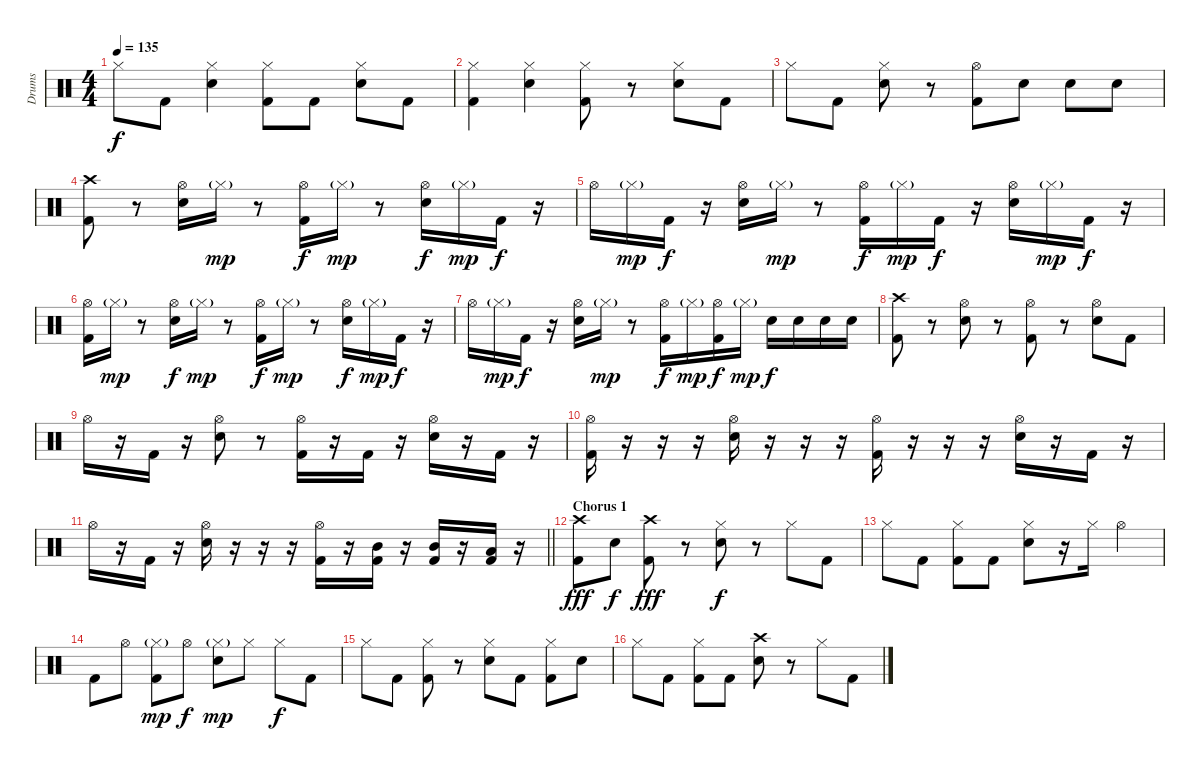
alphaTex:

\track ("Drums" "Drums") {instrument percussion}
\staff {score}
\articulation defaults
\ts (4 4)
\tempo 135
\clef neutral
\ks c "Hi-Hat (closed)".8{dy f} "Kick (hit) 2".8
("Hi-Hat (closed)" "Electric Snare (hit)").4 ("Hi-Hat (closed)" "Kick (hit) 2").8 "Kick (hit) 2".8 ("Hi-Hat (closed)" "Electric Snare (hit)").8 "Kick (hit) 2".8 |
("Hi-Hat (closed)" "Kick (hit) 2").4 ("Hi-Hat (closed)" "Electric Snare (hit)").4 ("Hi-Hat (closed)" "Kick (hit) 2").8 r.8 ("Hi-Hat (closed)" "Electric Snare (hit)").8 "Kick (hit) 2".8 |
"Hi-Hat (closed)".8 "Kick (hit) 2".8 ("Hi-Hat (closed)" "Electric Snare (hit)").8 r.8 ("Hi-Hat (open)" "Kick (hit) 2").8 "Electric Snare (hit)".8 "Electric Snare (hit)".8 "Electric Snare (hit)".8 |
("Crash high (hit)" "Kick (hit) 2").8 r.8 ("Hi-Hat (open)" "Electric Snare (hit)").16 "Hi-Hat (closed)"{g}.16{dy mp} r.8 ("Hi-Hat (open)" "Kick (hit) 2").16{dy f} "Hi-Hat (closed)"{g}.16{dy mp} r.8 ("Hi-Hat (open)" "Electric Snare (hit)").16{dy f} "Hi-Hat (closed)"{g}.16{dy mp} "Kick (hit) 2".16{dy f} r.16 |
"Hi-Hat (open)".16 "Hi-Hat (closed)"{g}.16{dy mp} "Kick (hit) 2".16{dy f} r.16 ("Hi-Hat (open)" "Electric Snare (hit)").16 "Hi-Hat (closed)"{g}.16{dy mp} r.8 ("Hi-Hat (open)" "Kick (hit) 2").16{dy f} "Hi-Hat (closed)"{g}.16{dy mp} "Kick (hit) 2".16{dy f} r.16 ("Hi-Hat (open)" "Electric Snare (hit)").16 "Hi-Hat (closed)"{g}.16{dy mp} "Kick (hit) 2".16{dy f} r.16 |
("Hi-Hat (open)" "Kick (hit) 2").16 "Hi-Hat (closed)"{g}.16{dy mp} r.8 ("Hi-Hat (open)" "Electric Snare (hit)").16{dy f} "Hi-Hat (closed)"{g}.16{dy mp} r.8 ("Hi-Hat (open)" "Kick (hit) 2").16{dy f} "Hi-Hat (closed)"{g}.16{dy mp} r.8 ("Hi-Hat (open)" "Electric Snare (hit)").16{dy f} "Hi-Hat (closed)"{g}.16{dy mp} "Kick (hit) 2".16{dy f} r.16 |
"Hi-Hat (open)".16 "Hi-Hat (closed)"{g}.16{dy mp} "Kick (hit) 2".16{dy f} r.16 ("Hi-Hat (open)" "Electric Snare (hit)").16 "Hi-Hat (closed)"{g}.16{dy mp} r.8 ("Hi-Hat (open)" "Kick (hit) 2").16{dy f} "Hi-Hat (closed)"{g}.16{dy mp} ("Hi-Hat (open)" "Kick (hit) 2").16{dy f} "Hi-Hat (closed)"{g}.16{dy mp} "Electric Snare (hit)".16{dy f} "Electric Snare (hit)".16 "Electric Snare (hit)".16 "Electric Snare (hit)".16 |
("Crash high (hit)" "Kick (hit) 2").8 r.8 ("Hi-Hat (open)" "Electric Snare (hit)").8 r.8 ("Hi-Hat (open)" "Kick (hit) 2").8 r.8 ("Hi-Hat (open)" "Electric Snare (hit)").8 "Kick (hit) 2".8 |
"Hi-Hat (open)".16 r.16 "Kick (hit) 2".16 r.16 ("Hi-Hat (open)" "Electric Snare (hit)").8 r.8 ("Hi-Hat (open)" "Kick (hit) 2").16 r.16 "Kick (hit) 2".16 r.16 ("Hi-Hat (open)" "Electric Snare (hit)").16 r.16 "Kick (hit) 2".16 r.16 |
("Hi-Hat (open)" "Kick (hit) 2").16 r.16 r.16 r.16 ("Hi-Hat (open)" "Electric Snare (hit)").16 r.16 r.16 r.16 ("Hi-Hat (open)" "Kick (hit) 2").16 r.16 r.16 r.16 ("Hi-Hat (open)" "Electric Snare (hit)").16 r.16 "Kick (hit) 2".16 r.16 |
\barLineRight lightlight "Hi-Hat (open)".16
r.16 "Kick (hit) 2".16 r.16 ("Hi-Hat (open)" "Electric Snare (hit)").16 r.16 r.16 r.16 ("Hi-Hat (open)" "Kick (hit) 2").16 r.16 ("Mid Tom (hit)" "Kick (hit) 2").16 r.16 ("Mid Tom (hit)" "Kick (hit) 2").16 r.16 ("Low Tom (hit)" "Kick (hit) 2").16 r.16 |
\section ("" "Chorus 1")
("Crash high (hit)" "Kick (hit) 2").8{dy fff} "Electric Snare (hit)".8{dy f} ("Crash high (hit)" "Kick (hit) 2").8{dy fff} r.8 ("Hi-Hat (closed)" "Electric Snare (hit)").8{dy f} r.8 "Hi-Hat (closed)".8 "Kick (hit) 2".8 |
"Hi-Hat (closed)".8 "Kick (hit) 2".8 ("Hi-Hat (closed)" "Kick (hit) 2").8 "Kick (hit) 2".8 ("Hi-Hat (closed)" "Electric Snare (hit)").8 r.16 "Hi-Hat (closed)".16 "Hi-Hat (open)".4 |
"Kick (hit) 2".8 "Hi-Hat (open)".8 ("Hi-Hat (closed)"{g} "Kick (hit) 2").8{dy mp} "Hi-Hat (open)".8{dy f} ("Hi-Hat (closed)"{g} "Electric Snare (hit)").8{dy mp} "Hi-Hat (closed)".8 "Hi-Hat (closed)".8{dy f} "Kick (hit) 2".8 |
"Hi-Hat (closed)".8 "Kick (hit) 2".8 ("Hi-Hat (closed)" "Kick (hit) 2").8 r.8 ("Hi-Hat (closed)" "Electric Snare (hit)").8 "Kick (hit) 2".8 ("Hi-Hat (closed)" "Kick (hit) 2").8 "Electric Snare (hit)".8 |
"Hi-Hat (closed)".8 "Kick (hit) 2".8 ("Hi-Hat (closed)" "Kick (hit) 2").8 "Kick (hit) 2".8 ("Crash high (hit)" "Electric Snare (hit)").8 r.8 "Hi-Hat (closed)".8 "Kick (hit) 2".8
